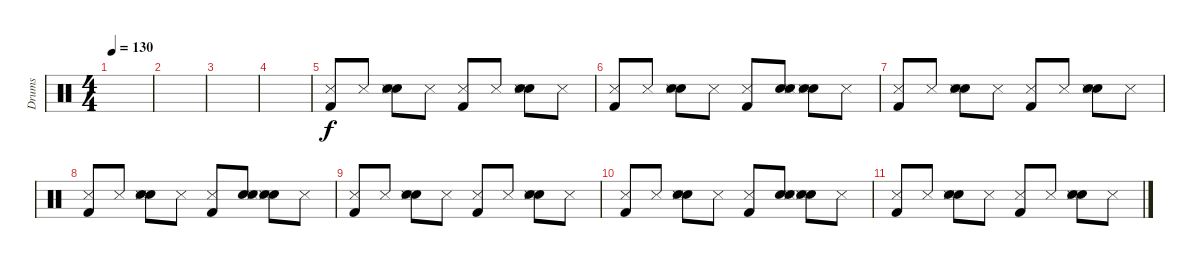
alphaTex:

\track ("Drums" "Drums") {instrument percussion}
\staff {score}
\articulation defaults
\ts (4 4)
\tempo 130
\clef neutral
\ks c
|
|
|
|
("Snare (side stick) 3" "Kick (hit) 2").8 "Snare (side stick) 3".8 ("Hand Clap (hit)" "Snare (hit) 2" "Snare (side stick) 3").8 "Snare (side stick) 3".8 ("Snare (side stick) 3" "Kick (hit) 2").8 "Snare (side stick) 3".8 ("Hand Clap (hit)" "Snare (hit) 2" "Snare (side stick) 3").8 "Snare (side stick) 3".8 |
("Snare (side stick) 3" "Kick (hit) 2").8 "Snare (side stick) 3".8 ("Hand Clap (hit)" "Snare (hit) 2" "Snare (side stick) 3").8 "Snare (side stick) 3".8 ("Snare (side stick) 3" "Kick (hit) 2").8 ("Hand Clap (hit)" "Snare (hit) 2" "Snare (side stick) 3").8 ("Hand Clap (hit)" "Snare (hit) 2" "Snare (side stick) 3").8 "Snare (side stick) 3".8 |
("Snare (side stick) 3" "Kick (hit) 2").8 "Snare (side stick) 3".8 ("Hand Clap (hit)" "Snare (hit) 2" "Snare (side stick) 3").8 "Snare (side stick) 3".8 ("Snare (side stick) 3" "Kick (hit) 2").8 "Snare (side stick) 3".8 ("Hand Clap (hit)" "Snare (hit) 2" "Snare (side stick) 3").8 "Snare (side stick) 3".8 |
("Snare (side stick) 3" "Kick (hit) 2").8 "Snare (side stick) 3".8 ("Hand Clap (hit)" "Snare (hit) 2" "Snare (side stick) 3").8 "Snare (side stick) 3".8 ("Snare (side stick) 3" "Kick (hit) 2").8 ("Hand Clap (hit)" "Snare (hit) 2" "Snare (side stick) 3").8 ("Hand Clap (hit)" "Snare (hit) 2" "Snare (side stick) 3").8 "Snare (side stick) 3".8 |
("Snare (side stick) 3" "Kick (hit) 2").8 "Snare (side stick) 3".8 ("Hand Clap (hit)" "Snare (hit) 2" "Snare (side stick) 3").8 "Snare (side stick) 3".8 ("Snare (side stick) 3" "Kick (hit) 2").8 "Snare (side stick) 3".8 ("Hand Clap (hit)" "Snare (hit) 2" "Snare (side stick) 3").8 "Snare (side stick) 3".8 |
("Snare (side stick) 3" "Kick (hit) 2").8 "Snare (side stick) 3".8 ("Hand Clap (hit)" "Snare (hit) 2" "Snare (side stick) 3").8 "Snare (side stick) 3".8 ("Snare (side stick) 3" "Kick (hit) 2").8 ("Hand Clap (hit)" "Snare (hit) 2" "Snare (side stick) 3").8 ("Hand Clap (hit)" "Snare (hit) 2" "Snare (side stick) 3").8 "Snare (side stick) 3".8 |
("Snare (side stick) 3" "Kick (hit) 2").8 "Snare (side stick) 3".8 ("Hand Clap (hit)" "Snare (hit) 2" "Snare (side stick) 3").8 "Snare (side stick) 3".8 ("Snare (side stick) 3" "Kick (hit) 2").8 "Snare (side stick) 3".8 ("Hand Clap (hit)" "Snare (hit) 2" "Snare (side stick) 3").8 "Snare (side stick) 3".8
